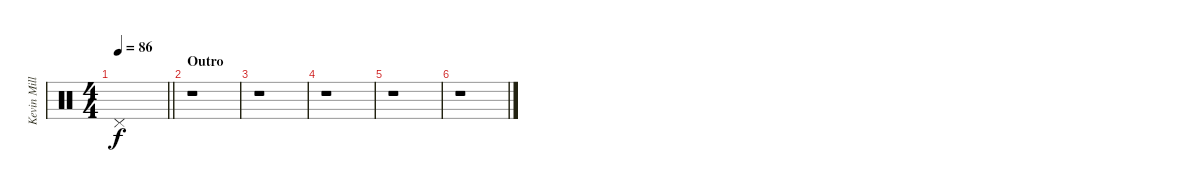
\track ("Kevin Miller (Drums)" "Kevin Mill") {instrument percussion}
\staff {score}
\articulation defaults
\ts (4 4)
\tempo 86
\clef neutral
\barLineRight lightlight
\ks c "Pedal Hi-Hat (hit)".1{dy f}
|
\section ("" "Outro")
r.1 |
r.1 |
r.1 |
r.1 |
r.1
